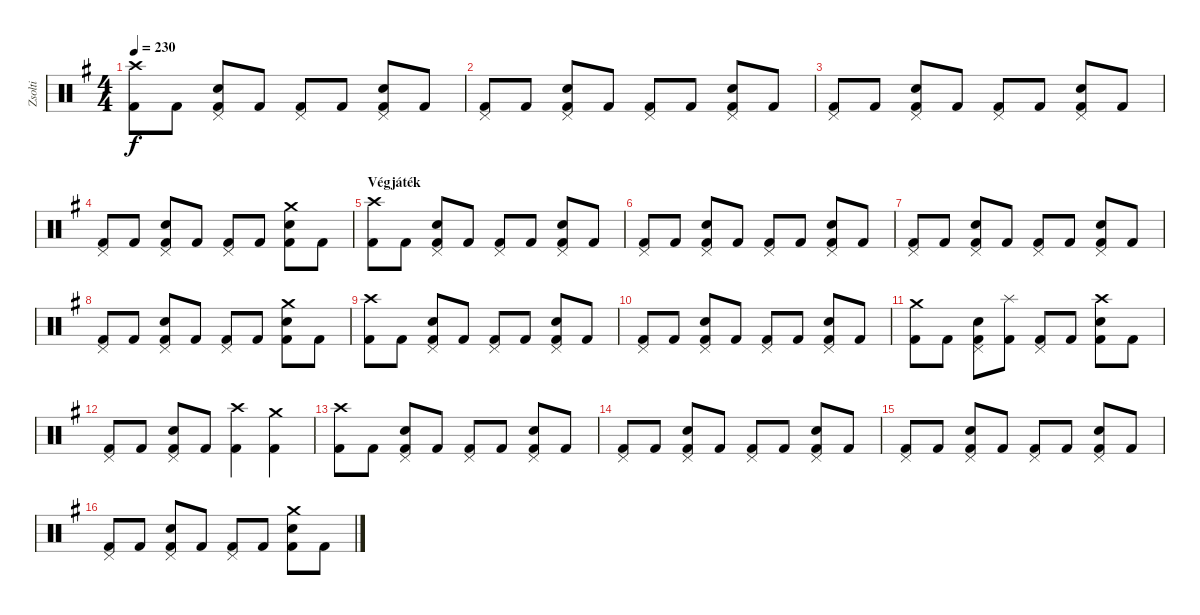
\track ("Zsolti" "Zsolti") {instrument percussion}
\staff {score}
\articulation defaults
\ts (4 4)
\tempo 230
\clef neutral
\ks eminor
("Crash high (hit)" "Kick (hit) 2").8{dy f} "Kick (hit) 2".8 ("Pedal Hi-Hat (hit)" "Snare (hit) 2" "Kick (hit) 2").8 "Kick (hit) 2".8 ("Pedal Hi-Hat (hit)" "Kick (hit) 2").8 "Kick (hit) 2".8 ("Pedal Hi-Hat (hit)" "Snare (hit) 2" "Kick (hit) 2").8 "Kick (hit) 2".8 |
("Pedal Hi-Hat (hit)" "Kick (hit) 2").8 "Kick (hit) 2".8 ("Pedal Hi-Hat (hit)" "Snare (hit) 2" "Kick (hit) 2").8 "Kick (hit) 2".8 ("Pedal Hi-Hat (hit)" "Kick (hit) 2").8 "Kick (hit) 2".8 ("Pedal Hi-Hat (hit)" "Snare (hit) 2" "Kick (hit) 2").8 "Kick (hit) 2".8 |
("Pedal Hi-Hat (hit)" "Kick (hit) 2").8 "Kick (hit) 2".8 ("Pedal Hi-Hat (hit)" "Snare (hit) 2" "Kick (hit) 2").8 "Kick (hit) 2".8 ("Pedal Hi-Hat (hit)" "Kick (hit) 2").8 "Kick (hit) 2".8 ("Pedal Hi-Hat (hit)" "Snare (hit) 2" "Kick (hit) 2").8 "Kick (hit) 2".8 |
("Pedal Hi-Hat (hit)" "Kick (hit) 2").8 "Kick (hit) 2".8 ("Pedal Hi-Hat (hit)" "Snare (hit) 2" "Kick (hit) 2").8 "Kick (hit) 2".8 ("Pedal Hi-Hat (hit)" "Kick (hit) 2").8 "Kick (hit) 2".8 ("Crash medium (hit)" "Snare (hit) 2" "Kick (hit) 2").8 "Kick (hit) 2".8 |
\section ("" "Végjáték")
("Crash high (hit)" "Kick (hit) 2").8 "Kick (hit) 2".8 ("Pedal Hi-Hat (hit)" "Snare (hit) 2" "Kick (hit) 2").8 "Kick (hit) 2".8 ("Pedal Hi-Hat (hit)" "Kick (hit) 2").8 "Kick (hit) 2".8 ("Pedal Hi-Hat (hit)" "Snare (hit) 2" "Kick (hit) 2").8 "Kick (hit) 2".8 |
("Pedal Hi-Hat (hit)" "Kick (hit) 2").8 "Kick (hit) 2".8 ("Pedal Hi-Hat (hit)" "Snare (hit) 2" "Kick (hit) 2").8 "Kick (hit) 2".8 ("Pedal Hi-Hat (hit)" "Kick (hit) 2").8 "Kick (hit) 2".8 ("Pedal Hi-Hat (hit)" "Snare (hit) 2" "Kick (hit) 2").8 "Kick (hit) 2".8 |
("Pedal Hi-Hat (hit)" "Kick (hit) 2").8 "Kick (hit) 2".8 ("Pedal Hi-Hat (hit)" "Snare (hit) 2" "Kick (hit) 2").8 "Kick (hit) 2".8 ("Pedal Hi-Hat (hit)" "Kick (hit) 2").8 "Kick (hit) 2".8 ("Pedal Hi-Hat (hit)" "Snare (hit) 2" "Kick (hit) 2").8 "Kick (hit) 2".8 |
("Pedal Hi-Hat (hit)" "Kick (hit) 2").8 "Kick (hit) 2".8 ("Pedal Hi-Hat (hit)" "Snare (hit) 2" "Kick (hit) 2").8 "Kick (hit) 2".8 ("Pedal Hi-Hat (hit)" "Kick (hit) 2").8 "Kick (hit) 2".8 ("Crash medium (hit)" "Snare (hit) 2" "Kick (hit) 2").8 "Kick (hit) 2".8 |
("Crash high (hit)" "Kick (hit) 2").8 "Kick (hit) 2".8 ("Pedal Hi-Hat (hit)" "Snare (hit) 2" "Kick (hit) 2").8 "Kick (hit) 2".8 ("Pedal Hi-Hat (hit)" "Kick (hit) 2").8 "Kick (hit) 2".8 ("Pedal Hi-Hat (hit)" "Snare (hit) 2" "Kick (hit) 2").8 "Kick (hit) 2".8 |
("Pedal Hi-Hat (hit)" "Kick (hit) 2").8 "Kick (hit) 2".8 ("Pedal Hi-Hat (hit)" "Snare (hit) 2" "Kick (hit) 2").8 "Kick (hit) 2".8 ("Pedal Hi-Hat (hit)" "Kick (hit) 2").8 "Kick (hit) 2".8 ("Pedal Hi-Hat (hit)" "Snare (hit) 2" "Kick (hit) 2").8 "Kick (hit) 2".8 |
("Crash medium (hit)" "Kick (hit) 2").8 "Kick (hit) 2".8 ("Pedal Hi-Hat (hit)" "Snare (hit) 2" "Kick (hit) 2").8 ("Splash (hit)" "Kick (hit) 2").8 ("Pedal Hi-Hat (hit)" "Kick (hit) 2").8 "Kick (hit) 2".8 ("Crash high (hit)" "Snare (hit) 2" "Kick (hit) 2").8 "Kick (hit) 2".8 |
("Pedal Hi-Hat (hit)" "Kick (hit) 2").8 "Kick (hit) 2".8 ("Pedal Hi-Hat (hit)" "Snare (hit) 2" "Kick (hit) 2").8 "Kick (hit) 2".8 ("Crash high (hit)" "Kick (hit) 2").4 ("Crash medium (hit)" "Kick (hit) 2").4 |
("Crash high (hit)" "Kick (hit) 2").8 "Kick (hit) 2".8 ("Pedal Hi-Hat (hit)" "Snare (hit) 2" "Kick (hit) 2").8 "Kick (hit) 2".8 ("Pedal Hi-Hat (hit)" "Kick (hit) 2").8 "Kick (hit) 2".8 ("Pedal Hi-Hat (hit)" "Snare (hit) 2" "Kick (hit) 2").8 "Kick (hit) 2".8 |
("Pedal Hi-Hat (hit)" "Kick (hit) 2").8 "Kick (hit) 2".8 ("Pedal Hi-Hat (hit)" "Snare (hit) 2" "Kick (hit) 2").8 "Kick (hit) 2".8 ("Pedal Hi-Hat (hit)" "Kick (hit) 2").8 "Kick (hit) 2".8 ("Pedal Hi-Hat (hit)" "Snare (hit) 2" "Kick (hit) 2").8 "Kick (hit) 2".8 |
("Pedal Hi-Hat (hit)" "Kick (hit) 2").8 "Kick (hit) 2".8 ("Pedal Hi-Hat (hit)" "Snare (hit) 2" "Kick (hit) 2").8 "Kick (hit) 2".8 ("Pedal Hi-Hat (hit)" "Kick (hit) 2").8 "Kick (hit) 2".8 ("Pedal Hi-Hat (hit)" "Snare (hit) 2" "Kick (hit) 2").8 "Kick (hit) 2".8 |
("Pedal Hi-Hat (hit)" "Kick (hit) 2").8 "Kick (hit) 2".8 ("Pedal Hi-Hat (hit)" "Snare (hit) 2" "Kick (hit) 2").8 "Kick (hit) 2".8 ("Pedal Hi-Hat (hit)" "Kick (hit) 2").8 "Kick (hit) 2".8 ("Crash medium (hit)" "Snare (hit) 2" "Kick (hit) 2").8 "Kick (hit) 2".8
